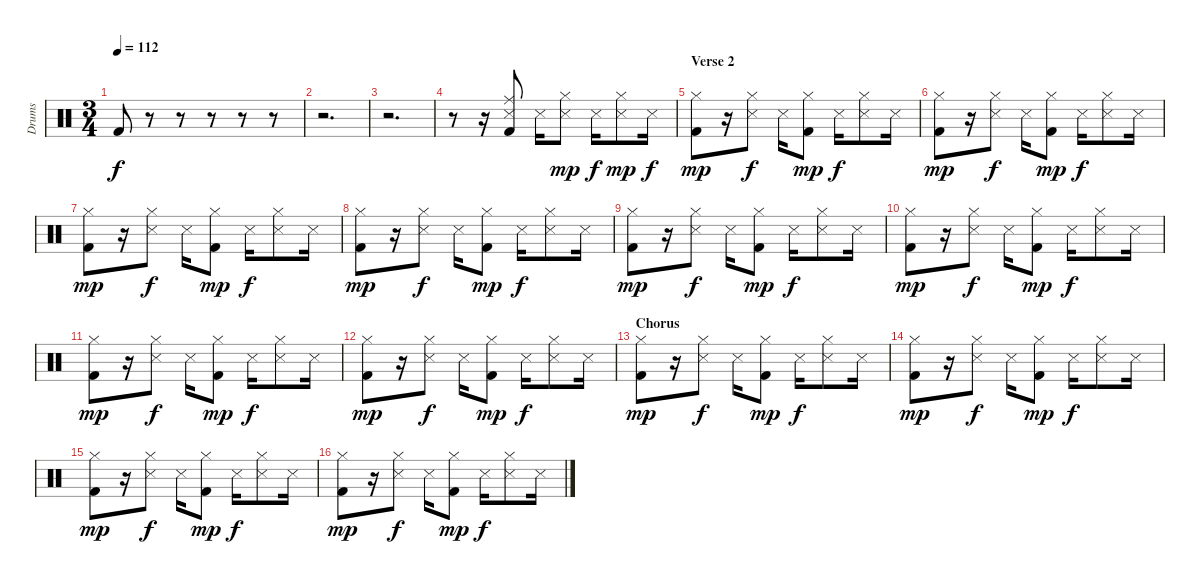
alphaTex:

\track ("Drums" "Drums") {instrument percussion}
\staff {score}
\articulation defaults
\ts (3 4)
\tempo 112
\clef neutral
\ks c "Kick (hit) 2".8{dy f}
r.8 r.8 r.8 r.8 r.8 |
r.2{d} |
r.2{d} |
r.8 r.16 ("Ride (middle)" "Snare (side stick) 3" "Kick (hit) 2").8 "Snare (side stick) 3".16 ("Hi-Hat (closed)" "Snare (side stick) 3").8{dy mp} "Snare (side stick) 3".16{dy f} ("Hi-Hat (closed)" "Snare (side stick) 3").8{dy mp} "Snare (side stick) 3".16{dy f} |
\section ("" "Verse 2")
("Hi-Hat (closed)" "Kick (hit) 2").8{dy mp} r.16 ("Hi-Hat (closed)" "Snare (side stick) 3").8{dy f} "Snare (side stick) 3".16 ("Hi-Hat (closed)" "Kick (hit) 2").8{dy mp} "Snare (side stick) 3".16{dy f} ("Hi-Hat (closed)" "Snare (side stick) 3").8 "Snare (side stick) 3".16 |
("Hi-Hat (closed)" "Kick (hit) 2").8{dy mp} r.16 ("Hi-Hat (closed)" "Snare (side stick) 3").8{dy f} "Snare (side stick) 3".16 ("Hi-Hat (closed)" "Kick (hit) 2").8{dy mp} "Snare (side stick) 3".16{dy f} ("Hi-Hat (closed)" "Snare (side stick) 3").8 "Snare (side stick) 3".16 |
("Hi-Hat (closed)" "Kick (hit) 2").8{dy mp} r.16 ("Hi-Hat (closed)" "Snare (side stick) 3").8{dy f} "Snare (side stick) 3".16 ("Hi-Hat (closed)" "Kick (hit) 2").8{dy mp} "Snare (side stick) 3".16{dy f} ("Hi-Hat (closed)" "Snare (side stick) 3").8 "Snare (side stick) 3".16 |
("Hi-Hat (closed)" "Kick (hit) 2").8{dy mp} r.16 ("Hi-Hat (closed)" "Snare (side stick) 3").8{dy f} "Snare (side stick) 3".16 ("Hi-Hat (closed)" "Kick (hit) 2").8{dy mp} "Snare (side stick) 3".16{dy f} ("Hi-Hat (closed)" "Snare (side stick) 3").8 "Snare (side stick) 3".16 |
("Hi-Hat (closed)" "Kick (hit) 2").8{dy mp} r.16 ("Hi-Hat (closed)" "Snare (side stick) 3").8{dy f} "Snare (side stick) 3".16 ("Hi-Hat (closed)" "Kick (hit) 2").8{dy mp} "Snare (side stick) 3".16{dy f} ("Hi-Hat (closed)" "Snare (side stick) 3").8 "Snare (side stick) 3".16 |
("Hi-Hat (closed)" "Kick (hit) 2").8{dy mp} r.16 ("Hi-Hat (closed)" "Snare (side stick) 3").8{dy f} "Snare (side stick) 3".16 ("Hi-Hat (closed)" "Kick (hit) 2").8{dy mp} "Snare (side stick) 3".16{dy f} ("Hi-Hat (closed)" "Snare (side stick) 3").8 "Snare (side stick) 3".16 |
("Hi-Hat (closed)" "Kick (hit) 2").8{dy mp} r.16 ("Hi-Hat (closed)" "Snare (side stick) 3").8{dy f} "Snare (side stick) 3".16 ("Hi-Hat (closed)" "Kick (hit) 2").8{dy mp} "Snare (side stick) 3".16{dy f} ("Hi-Hat (closed)" "Snare (side stick) 3").8 "Snare (side stick) 3".16 |
("Hi-Hat (closed)" "Kick (hit) 2").8{dy mp} r.16 ("Hi-Hat (closed)" "Snare (side stick) 3").8{dy f} "Snare (side stick) 3".16 ("Hi-Hat (closed)" "Kick (hit) 2").8{dy mp} "Snare (side stick) 3".16{dy f} ("Hi-Hat (closed)" "Snare (side stick) 3").8 "Snare (side stick) 3".16 |
\section ("" "Chorus")
("Hi-Hat (closed)" "Kick (hit) 2").8{dy mp} r.16 ("Hi-Hat (closed)" "Snare (side stick) 3").8{dy f} "Snare (side stick) 3".16 ("Hi-Hat (closed)" "Kick (hit) 2").8{dy mp} "Snare (side stick) 3".16{dy f} ("Hi-Hat (closed)" "Snare (side stick) 3").8 "Snare (side stick) 3".16 |
("Hi-Hat (closed)" "Kick (hit) 2").8{dy mp} r.16 ("Hi-Hat (closed)" "Snare (side stick) 3").8{dy f} "Snare (side stick) 3".16 ("Hi-Hat (closed)" "Kick (hit) 2").8{dy mp} "Snare (side stick) 3".16{dy f} ("Hi-Hat (closed)" "Snare (side stick) 3").8 "Snare (side stick) 3".16 |
("Hi-Hat (closed)" "Kick (hit) 2").8{dy mp} r.16 ("Hi-Hat (closed)" "Snare (side stick) 3").8{dy f} "Snare (side stick) 3".16 ("Hi-Hat (closed)" "Kick (hit) 2").8{dy mp} "Snare (side stick) 3".16{dy f} ("Hi-Hat (closed)" "Snare (side stick) 3").8 "Snare (side stick) 3".16 |
("Hi-Hat (closed)" "Kick (hit) 2").8{dy mp} r.16 ("Hi-Hat (closed)" "Snare (side stick) 3").8{dy f} "Snare (side stick) 3".16 ("Hi-Hat (closed)" "Kick (hit) 2").8{dy mp} "Snare (side stick) 3".16{dy f} ("Hi-Hat (closed)" "Snare (side stick) 3").8 "Snare (side stick) 3".16
